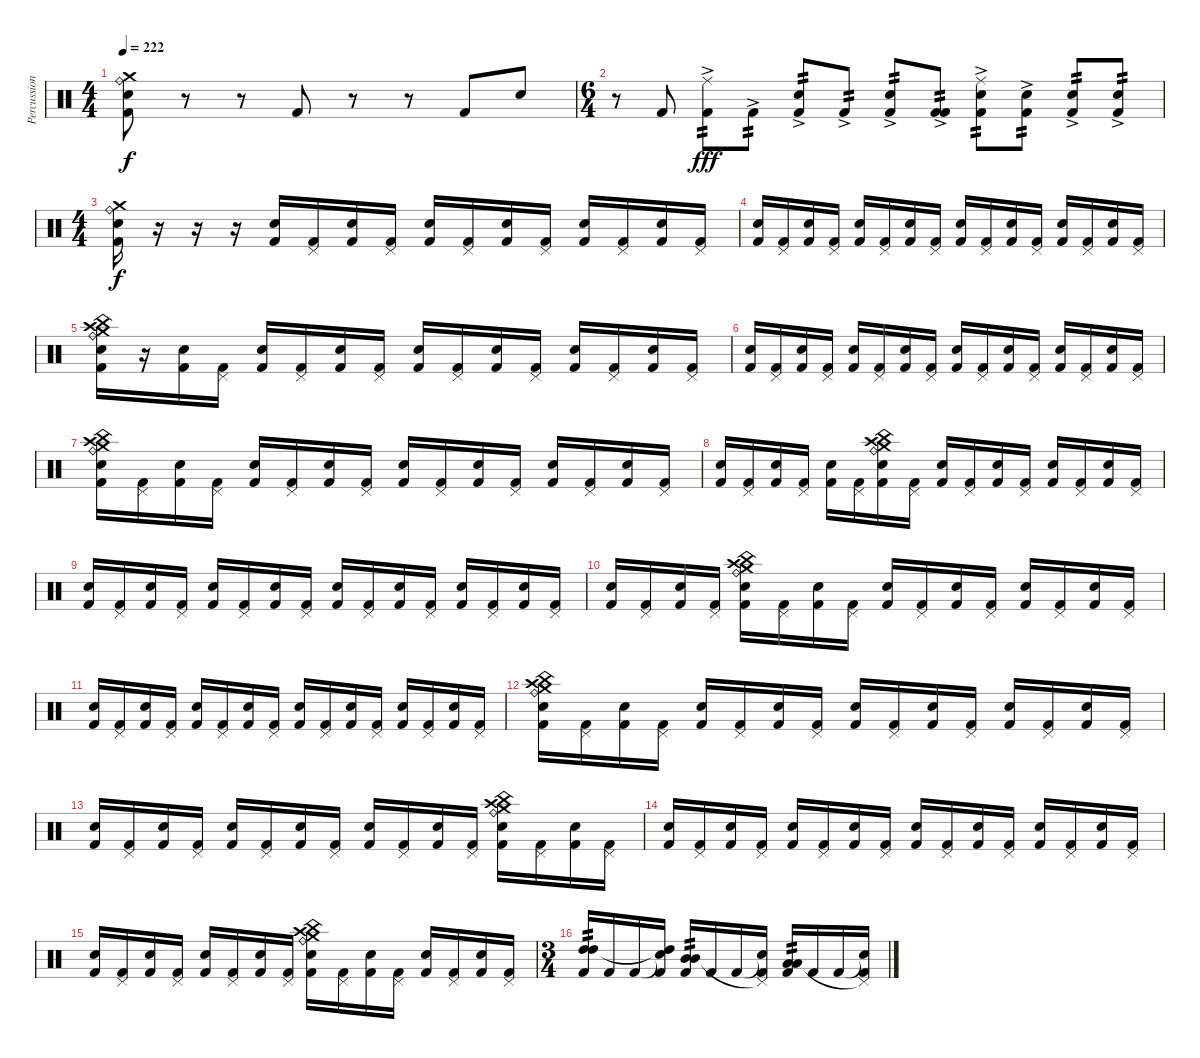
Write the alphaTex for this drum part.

\track ("Percussions" "Percussion") {instrument percussion}
\staff {score}
\articulation defaults
\ts (4 4)
\tempo 222
\clef neutral
\ks c
("Ride (bell)" "Crash medium (hit)" "Snare (hit) 2" "Kick (hit) 2").8{dy f} r.8 r.8 "Kick (hit) 2".8 r.8 r.8 "Kick (hit) 2".8 "Snare (hit) 2".8 |
\ts (6 4)
r.8 "Kick (hit) 2".8 ("Ride (middle)" "Kick (hit) 2"{ac}).8{tp 2 dy fff} "Kick (hit) 2"{ac}.8{tp 2} ("Snare (hit) 2" "Kick (hit) 2"{ac}).8{tp 2} "Kick (hit) 2"{ac}.8{tp 2} ("Snare (hit) 2" "Kick (hit) 2"{ac}).8{tp 2} ("Kick (hit) 2" "Kick (hit) 2"{ac}).8{tp 2} ("Snare (hit) 2" "Ride (middle)" "Kick (hit) 2"{ac}).8{tp 2} ("Snare (hit) 2" "Kick (hit) 2"{ac}).8{tp 2} ("Snare (hit) 2" "Kick (hit) 2"{ac}).8{tp 2} ("Snare (hit) 2" "Kick (hit) 2"{ac}).8{tp 2} |
\ts (4 4)
("Ride (bell)" "Crash medium (hit)" "Snare (hit) 2" "Kick (hit) 2").16{dy f} r.16 r.16 r.16 ("Snare (hit) 2" "Kick (hit) 2").16 ("Pedal Hi-Hat (hit)" "Kick (hit) 2").16 ("Snare (hit) 2" "Kick (hit) 2").16 ("Pedal Hi-Hat (hit)" "Kick (hit) 2").16 ("Snare (hit) 2" "Kick (hit) 2").16 ("Pedal Hi-Hat (hit)" "Kick (hit) 2").16 ("Snare (hit) 2" "Kick (hit) 2").16 ("Pedal Hi-Hat (hit)" "Kick (hit) 2").16 ("Snare (hit) 2" "Kick (hit) 2").16 ("Pedal Hi-Hat (hit)" "Kick (hit) 2").16 ("Snare (hit) 2" "Kick (hit) 2").16 ("Pedal Hi-Hat (hit)" "Kick (hit) 2").16 |
("Snare (hit) 2" "Kick (hit) 2").16 ("Pedal Hi-Hat (hit)" "Kick (hit) 2").16 ("Snare (hit) 2" "Kick (hit) 2").16 ("Pedal Hi-Hat (hit)" "Kick (hit) 2").16 ("Snare (hit) 2" "Kick (hit) 2").16 ("Pedal Hi-Hat (hit)" "Kick (hit) 2").16 ("Snare (hit) 2" "Kick (hit) 2").16 ("Pedal Hi-Hat (hit)" "Kick (hit) 2").16 ("Snare (hit) 2" "Kick (hit) 2").16 ("Pedal Hi-Hat (hit)" "Kick (hit) 2").16 ("Snare (hit) 2" "Kick (hit) 2").16 ("Pedal Hi-Hat (hit)" "Kick (hit) 2").16 ("Snare (hit) 2" "Kick (hit) 2").16 ("Pedal Hi-Hat (hit)" "Kick (hit) 2").16 ("Snare (hit) 2" "Kick (hit) 2").16 ("Pedal Hi-Hat (hit)" "Kick (hit) 2").16 |
("China (hit)" "Crash high (hit)" "Crash medium (hit)" "Ride (bell)" "Snare (hit) 2" "Kick (hit) 2").16 r.16 ("Snare (hit) 2" "Kick (hit) 2").16 ("Pedal Hi-Hat (hit)" "Kick (hit) 2").16 ("Snare (hit) 2" "Kick (hit) 2").16 ("Pedal Hi-Hat (hit)" "Kick (hit) 2").16 ("Snare (hit) 2" "Kick (hit) 2").16 ("Pedal Hi-Hat (hit)" "Kick (hit) 2").16 ("Snare (hit) 2" "Kick (hit) 2").16 ("Pedal Hi-Hat (hit)" "Kick (hit) 2").16 ("Snare (hit) 2" "Kick (hit) 2").16 ("Pedal Hi-Hat (hit)" "Kick (hit) 2").16 ("Snare (hit) 2" "Kick (hit) 2").16 ("Pedal Hi-Hat (hit)" "Kick (hit) 2").16 ("Snare (hit) 2" "Kick (hit) 2").16 ("Pedal Hi-Hat (hit)" "Kick (hit) 2").16 |
("Snare (hit) 2" "Kick (hit) 2").16 ("Pedal Hi-Hat (hit)" "Kick (hit) 2").16 ("Snare (hit) 2" "Kick (hit) 2").16 ("Pedal Hi-Hat (hit)" "Kick (hit) 2").16 ("Snare (hit) 2" "Kick (hit) 2").16 ("Pedal Hi-Hat (hit)" "Kick (hit) 2").16 ("Snare (hit) 2" "Kick (hit) 2").16 ("Pedal Hi-Hat (hit)" "Kick (hit) 2").16 ("Snare (hit) 2" "Kick (hit) 2").16 ("Pedal Hi-Hat (hit)" "Kick (hit) 2").16 ("Snare (hit) 2" "Kick (hit) 2").16 ("Pedal Hi-Hat (hit)" "Kick (hit) 2").16 ("Snare (hit) 2" "Kick (hit) 2").16 ("Pedal Hi-Hat (hit)" "Kick (hit) 2").16 ("Snare (hit) 2" "Kick (hit) 2").16 ("Pedal Hi-Hat (hit)" "Kick (hit) 2").16 |
("China (hit)" "Crash high (hit)" "Crash medium (hit)" "Ride (bell)" "Snare (hit) 2" "Kick (hit) 2").16 ("Pedal Hi-Hat (hit)" "Kick (hit) 2").16 ("Snare (hit) 2" "Kick (hit) 2").16 ("Pedal Hi-Hat (hit)" "Kick (hit) 2").16 ("Snare (hit) 2" "Kick (hit) 2").16 ("Pedal Hi-Hat (hit)" "Kick (hit) 2").16 ("Snare (hit) 2" "Kick (hit) 2").16 ("Pedal Hi-Hat (hit)" "Kick (hit) 2").16 ("Snare (hit) 2" "Kick (hit) 2").16 ("Pedal Hi-Hat (hit)" "Kick (hit) 2").16 ("Snare (hit) 2" "Kick (hit) 2").16 ("Pedal Hi-Hat (hit)" "Kick (hit) 2").16 ("Snare (hit) 2" "Kick (hit) 2").16 ("Pedal Hi-Hat (hit)" "Kick (hit) 2").16 ("Snare (hit) 2" "Kick (hit) 2").16 ("Pedal Hi-Hat (hit)" "Kick (hit) 2").16 |
("Snare (hit) 2" "Kick (hit) 2").16 ("Pedal Hi-Hat (hit)" "Kick (hit) 2").16 ("Snare (hit) 2" "Kick (hit) 2").16 ("Pedal Hi-Hat (hit)" "Kick (hit) 2").16 ("Snare (hit) 2" "Kick (hit) 2").16 ("Pedal Hi-Hat (hit)" "Kick (hit) 2").16 ("Ride (bell)" "China (hit)" "Crash high (hit)" "Crash medium (hit)" "Snare (hit) 2" "Kick (hit) 2").16 ("Pedal Hi-Hat (hit)" "Kick (hit) 2").16 ("Snare (hit) 2" "Kick (hit) 2").16 ("Pedal Hi-Hat (hit)" "Kick (hit) 2").16 ("Snare (hit) 2" "Kick (hit) 2").16 ("Pedal Hi-Hat (hit)" "Kick (hit) 2").16 ("Snare (hit) 2" "Kick (hit) 2").16 ("Pedal Hi-Hat (hit)" "Kick (hit) 2").16 ("Snare (hit) 2" "Kick (hit) 2").16 ("Pedal Hi-Hat (hit)" "Kick (hit) 2").16 |
("Snare (hit) 2" "Kick (hit) 2").16 ("Pedal Hi-Hat (hit)" "Kick (hit) 2").16 ("Snare (hit) 2" "Kick (hit) 2").16 ("Pedal Hi-Hat (hit)" "Kick (hit) 2").16 ("Snare (hit) 2" "Kick (hit) 2").16 ("Pedal Hi-Hat (hit)" "Kick (hit) 2").16 ("Snare (hit) 2" "Kick (hit) 2").16 ("Pedal Hi-Hat (hit)" "Kick (hit) 2").16 ("Snare (hit) 2" "Kick (hit) 2").16 ("Pedal Hi-Hat (hit)" "Kick (hit) 2").16 ("Snare (hit) 2" "Kick (hit) 2").16 ("Pedal Hi-Hat (hit)" "Kick (hit) 2").16 ("Snare (hit) 2" "Kick (hit) 2").16 ("Pedal Hi-Hat (hit)" "Kick (hit) 2").16 ("Snare (hit) 2" "Kick (hit) 2").16 ("Pedal Hi-Hat (hit)" "Kick (hit) 2").16 |
("Snare (hit) 2" "Kick (hit) 2").16 ("Pedal Hi-Hat (hit)" "Kick (hit) 2").16 ("Snare (hit) 2" "Kick (hit) 2").16 ("Pedal Hi-Hat (hit)" "Kick (hit) 2").16 ("Crash high (hit)" "Crash medium (hit)" "Ride (bell)" "China (hit)" "Snare (hit) 2" "Kick (hit) 2").16 ("Pedal Hi-Hat (hit)" "Kick (hit) 2").16 ("Snare (hit) 2" "Kick (hit) 2").16 ("Pedal Hi-Hat (hit)" "Kick (hit) 2").16 ("Snare (hit) 2" "Kick (hit) 2").16 ("Pedal Hi-Hat (hit)" "Kick (hit) 2").16 ("Snare (hit) 2" "Kick (hit) 2").16 ("Pedal Hi-Hat (hit)" "Kick (hit) 2").16 ("Snare (hit) 2" "Kick (hit) 2").16 ("Pedal Hi-Hat (hit)" "Kick (hit) 2").16 ("Snare (hit) 2" "Kick (hit) 2").16 ("Pedal Hi-Hat (hit)" "Kick (hit) 2").16 |
("Snare (hit) 2" "Kick (hit) 2").16 ("Pedal Hi-Hat (hit)" "Kick (hit) 2").16 ("Snare (hit) 2" "Kick (hit) 2").16 ("Pedal Hi-Hat (hit)" "Kick (hit) 2").16 ("Snare (hit) 2" "Kick (hit) 2").16 ("Pedal Hi-Hat (hit)" "Kick (hit) 2").16 ("Snare (hit) 2" "Kick (hit) 2").16 ("Pedal Hi-Hat (hit)" "Kick (hit) 2").16 ("Snare (hit) 2" "Kick (hit) 2").16 ("Pedal Hi-Hat (hit)" "Kick (hit) 2").16 ("Snare (hit) 2" "Kick (hit) 2").16 ("Pedal Hi-Hat (hit)" "Kick (hit) 2").16 ("Snare (hit) 2" "Kick (hit) 2").16 ("Pedal Hi-Hat (hit)" "Kick (hit) 2").16 ("Snare (hit) 2" "Kick (hit) 2").16 ("Pedal Hi-Hat (hit)" "Kick (hit) 2").16 |
("China (hit)" "Crash high (hit)" "Crash medium (hit)" "Ride (bell)" "Snare (hit) 2" "Kick (hit) 2").16 ("Pedal Hi-Hat (hit)" "Kick (hit) 2").16 ("Snare (hit) 2" "Kick (hit) 2").16 ("Pedal Hi-Hat (hit)" "Kick (hit) 2").16 ("Snare (hit) 2" "Kick (hit) 2").16 ("Pedal Hi-Hat (hit)" "Kick (hit) 2").16 ("Snare (hit) 2" "Kick (hit) 2").16 ("Pedal Hi-Hat (hit)" "Kick (hit) 2").16 ("Snare (hit) 2" "Kick (hit) 2").16 ("Pedal Hi-Hat (hit)" "Kick (hit) 2").16 ("Snare (hit) 2" "Kick (hit) 2").16 ("Pedal Hi-Hat (hit)" "Kick (hit) 2").16 ("Snare (hit) 2" "Kick (hit) 2").16 ("Pedal Hi-Hat (hit)" "Kick (hit) 2").16 ("Snare (hit) 2" "Kick (hit) 2").16 ("Pedal Hi-Hat (hit)" "Kick (hit) 2").16 |
("Snare (hit) 2" "Kick (hit) 2").16 ("Pedal Hi-Hat (hit)" "Kick (hit) 2").16 ("Snare (hit) 2" "Kick (hit) 2").16 ("Pedal Hi-Hat (hit)" "Kick (hit) 2").16 ("Snare (hit) 2" "Kick (hit) 2").16 ("Pedal Hi-Hat (hit)" "Kick (hit) 2").16 ("Snare (hit) 2" "Kick (hit) 2").16 ("Pedal Hi-Hat (hit)" "Kick (hit) 2").16 ("Snare (hit) 2" "Kick (hit) 2").16 ("Pedal Hi-Hat (hit)" "Kick (hit) 2").16 ("Snare (hit) 2" "Kick (hit) 2").16 ("Pedal Hi-Hat (hit)" "Kick (hit) 2").16 ("China (hit)" "Crash high (hit)" "Crash medium (hit)" "Ride (bell)" "Snare (hit) 2" "Kick (hit) 2").16 ("Pedal Hi-Hat (hit)" "Kick (hit) 2").16 ("Snare (hit) 2" "Kick (hit) 2").16 ("Pedal Hi-Hat (hit)" "Kick (hit) 2").16 |
("Snare (hit) 2" "Kick (hit) 2").16 ("Pedal Hi-Hat (hit)" "Kick (hit) 2").16 ("Snare (hit) 2" "Kick (hit) 2").16 ("Pedal Hi-Hat (hit)" "Kick (hit) 2").16 ("Snare (hit) 2" "Kick (hit) 2").16 ("Pedal Hi-Hat (hit)" "Kick (hit) 2").16 ("Snare (hit) 2" "Kick (hit) 2").16 ("Pedal Hi-Hat (hit)" "Kick (hit) 2").16 ("Snare (hit) 2" "Kick (hit) 2").16 ("Pedal Hi-Hat (hit)" "Kick (hit) 2").16 ("Snare (hit) 2" "Kick (hit) 2").16 ("Pedal Hi-Hat (hit)" "Kick (hit) 2").16 ("Snare (hit) 2" "Kick (hit) 2").16 ("Pedal Hi-Hat (hit)" "Kick (hit) 2").16 ("Snare (hit) 2" "Kick (hit) 2").16 ("Pedal Hi-Hat (hit)" "Kick (hit) 2").16 |
("Snare (hit) 2" "Kick (hit) 2").16 ("Pedal Hi-Hat (hit)" "Kick (hit) 2").16 ("Snare (hit) 2" "Kick (hit) 2").16 ("Pedal Hi-Hat (hit)" "Kick (hit) 2").16 ("Snare (hit) 2" "Kick (hit) 2").16 ("Pedal Hi-Hat (hit)" "Kick (hit) 2").16 ("Snare (hit) 2" "Kick (hit) 2").16 ("Pedal Hi-Hat (hit)" "Kick (hit) 2").16 ("China (hit)" "Crash high (hit)" "Crash medium (hit)" "Ride (bell)" "Snare (hit) 2" "Kick (hit) 2").16 ("Pedal Hi-Hat (hit)" "Kick (hit) 2").16 ("Snare (hit) 2" "Kick (hit) 2").16 ("Pedal Hi-Hat (hit)" "Kick (hit) 2").16 ("Snare (hit) 2" "Kick (hit) 2").16 ("Pedal Hi-Hat (hit)" "Kick (hit) 2").16 ("Snare (hit) 2" "Kick (hit) 2").16 ("Pedal Hi-Hat (hit)" "Kick (hit) 2").16 |
\ts (3 4)
("High Tom (hit)" "High Tom (hit)" "Kick (hit) 2").16{tp 2} "Kick (hit) 2".16 "Kick (hit) 2".16 ("Snare (hit)"{t} "High Tom (hit)"{t} "Kick (hit) 2").16 ("Mid Tom (hit)" "Mid Tom (hit)" "Kick (hit) 2").16{tp 2} "Kick (hit) 2".16 "Kick (hit) 2".16 ("Snare (hit)"{t} "Pedal Hi-Hat (hit)"{t} "Kick (hit) 2").16 ("Low Tom (hit)" "Low Tom (hit)" "Kick (hit) 2").16{tp 2} "Kick (hit) 2".16 "Kick (hit) 2".16 ("Snare (hit)"{t} "Pedal Hi-Hat (hit)"{t} "Kick (hit) 2").16
